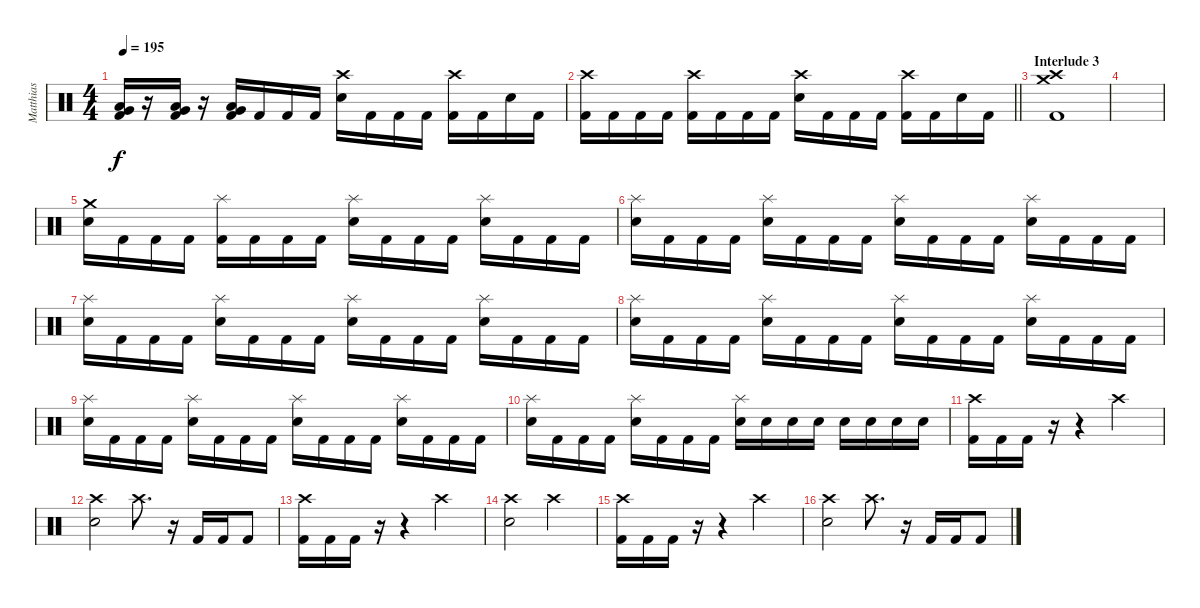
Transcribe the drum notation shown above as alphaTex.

\track ("Matthias" "Matthias") {instrument percussion}
\staff {score}
\articulation defaults
\ts (4 4)
\tempo 195
\clef neutral
\ks c
("Very Low Tom (hit)" "Low Tom (hit)" "Kick (hit) 2").16{dy f} r.16 ("Very Low Tom (hit)" "Low Tom (hit)" "Kick (hit) 2").16 r.16 ("Very Low Tom (hit)" "Low Tom (hit)" "Kick (hit) 2").16 "Kick (hit) 2".16 "Kick (hit) 2".16 "Kick (hit) 2".16 ("Crash high (hit)" "Electric Snare (hit)").16 "Kick (hit) 2".16 "Kick (hit) 2".16 "Kick (hit) 2".16 ("Crash high (hit)" "Kick (hit) 2").16 "Kick (hit) 2".16 "Electric Snare (hit)".16 "Kick (hit) 2".16 |
\barLineRight lightlight
("Crash high (hit)" "Kick (hit) 2").16 "Kick (hit) 2".16 "Kick (hit) 2".16 "Kick (hit) 2".16 ("Crash high (hit)" "Kick (hit) 2").16 "Kick (hit) 2".16 "Kick (hit) 2".16 "Kick (hit) 2".16 ("Crash high (hit)" "Electric Snare (hit)").16 "Kick (hit) 2".16 "Kick (hit) 2".16 "Kick (hit) 2".16 ("Crash high (hit)" "Kick (hit) 2").16 "Kick (hit) 2".16 "Electric Snare (hit)".16 "Kick (hit) 2".16 |
\section ("" "Interlude 3")
("Crash medium (hit)" "Crash high (hit)" "Kick (hit) 2").1 |
|
("Crash medium (hit)" "Electric Snare (hit)").16 "Kick (hit) 2".16 "Kick (hit) 2".16 "Kick (hit) 2".16 ("Splash (hit)" "Kick (hit) 2").16 "Kick (hit) 2".16 "Kick (hit) 2".16 "Kick (hit) 2".16 ("Splash (hit)" "Electric Snare (hit)").16 "Kick (hit) 2".16 "Kick (hit) 2".16 "Kick (hit) 2".16 ("Splash (hit)" "Electric Snare (hit)").16 "Kick (hit) 2".16 "Kick (hit) 2".16 "Kick (hit) 2".16 |
("Splash (hit)" "Electric Snare (hit)").16 "Kick (hit) 2".16 "Kick (hit) 2".16 "Kick (hit) 2".16 ("Splash (hit)" "Electric Snare (hit)").16 "Kick (hit) 2".16 "Kick (hit) 2".16 "Kick (hit) 2".16 ("Splash (hit)" "Electric Snare (hit)").16 "Kick (hit) 2".16 "Kick (hit) 2".16 "Kick (hit) 2".16 ("Splash (hit)" "Electric Snare (hit)").16 "Kick (hit) 2".16 "Kick (hit) 2".16 "Kick (hit) 2".16 |
("Splash (hit)" "Electric Snare (hit)").16 "Kick (hit) 2".16 "Kick (hit) 2".16 "Kick (hit) 2".16 ("Splash (hit)" "Electric Snare (hit)").16 "Kick (hit) 2".16 "Kick (hit) 2".16 "Kick (hit) 2".16 ("Splash (hit)" "Electric Snare (hit)").16 "Kick (hit) 2".16 "Kick (hit) 2".16 "Kick (hit) 2".16 ("Splash (hit)" "Electric Snare (hit)").16 "Kick (hit) 2".16 "Kick (hit) 2".16 "Kick (hit) 2".16 |
("Splash (hit)" "Electric Snare (hit)").16 "Kick (hit) 2".16 "Kick (hit) 2".16 "Kick (hit) 2".16 ("Splash (hit)" "Electric Snare (hit)").16 "Kick (hit) 2".16 "Kick (hit) 2".16 "Kick (hit) 2".16 ("Splash (hit)" "Electric Snare (hit)").16 "Kick (hit) 2".16 "Kick (hit) 2".16 "Kick (hit) 2".16 ("Splash (hit)" "Electric Snare (hit)").16 "Kick (hit) 2".16 "Kick (hit) 2".16 "Kick (hit) 2".16 |
("Splash (hit)" "Electric Snare (hit)").16 "Kick (hit) 2".16 "Kick (hit) 2".16 "Kick (hit) 2".16 ("Splash (hit)" "Electric Snare (hit)").16 "Kick (hit) 2".16 "Kick (hit) 2".16 "Kick (hit) 2".16 ("Splash (hit)" "Electric Snare (hit)").16 "Kick (hit) 2".16 "Kick (hit) 2".16 "Kick (hit) 2".16 ("Splash (hit)" "Electric Snare (hit)").16 "Kick (hit) 2".16 "Kick (hit) 2".16 "Kick (hit) 2".16 |
("Splash (hit)" "Electric Snare (hit)").16 "Kick (hit) 2".16 "Kick (hit) 2".16 "Kick (hit) 2".16 ("Splash (hit)" "Electric Snare (hit)").16 "Kick (hit) 2".16 "Kick (hit) 2".16 "Kick (hit) 2".16 ("Splash (hit)" "Electric Snare (hit)").16 "Electric Snare (hit)".16 "Electric Snare (hit)".16 "Electric Snare (hit)".16 "Electric Snare (hit)".16 "Electric Snare (hit)".16 "Electric Snare (hit)".16 "Electric Snare (hit)".16 |
("Crash high (hit)" "Kick (hit) 2").16 "Kick (hit) 2".16 "Kick (hit) 2".16 r.16 r.4 "Crash high (hit)".2 |
("Crash high (hit)" "Electric Snare (hit)").2 "Crash high (hit)".8{d} r.16 "Kick (hit) 2".16 "Kick (hit) 2".16 "Kick (hit) 2".8 |
("Crash high (hit)" "Kick (hit) 2").16 "Kick (hit) 2".16 "Kick (hit) 2".16 r.16 r.4 "Crash high (hit)".2 |
("Crash high (hit)" "Electric Snare (hit)").2 "Crash high (hit)".2 |
("Crash high (hit)" "Kick (hit) 2").16 "Kick (hit) 2".16 "Kick (hit) 2".16 r.16 r.4 "Crash high (hit)".2 |
("Crash high (hit)" "Electric Snare (hit)").2 "Crash high (hit)".8{d} r.16 "Kick (hit) 2".16 "Kick (hit) 2".16 "Kick (hit) 2".8
